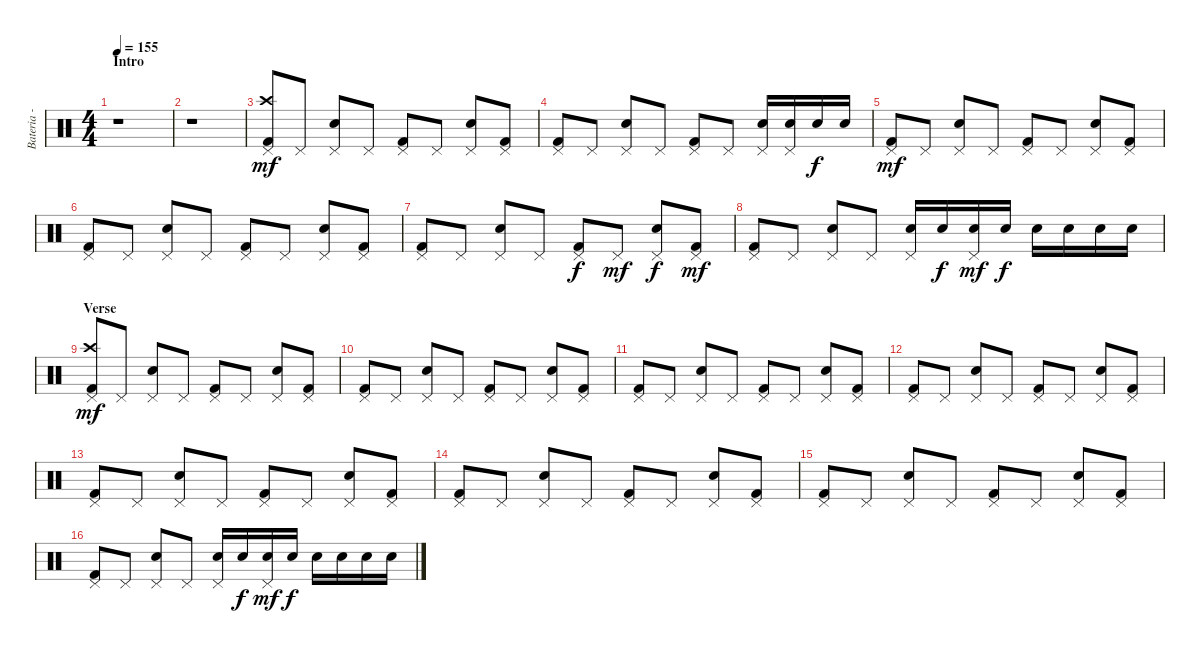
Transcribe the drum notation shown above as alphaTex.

\track ("Bateria - Larzon" "Bateria - ") {instrument percussion}
\staff {score}
\articulation defaults
\ts (4 4)
\section ("" "Intro")
\tempo 155
\clef neutral
\ks c
r.1{dy mf} |
r.1 |
("Kick (hit) 2" "Crash high (hit)" "Pedal Hi-Hat (hit)").8 "Pedal Hi-Hat (hit)".8 ("Electric Snare (hit)" "Pedal Hi-Hat (hit)").8 "Pedal Hi-Hat (hit)".8 ("Kick (hit) 2" "Pedal Hi-Hat (hit)").8 "Pedal Hi-Hat (hit)".8 ("Electric Snare (hit)" "Pedal Hi-Hat (hit)").8 ("Kick (hit) 2" "Pedal Hi-Hat (hit)").8 |
("Kick (hit) 2" "Pedal Hi-Hat (hit)").8 "Pedal Hi-Hat (hit)".8 ("Electric Snare (hit)" "Pedal Hi-Hat (hit)").8 "Pedal Hi-Hat (hit)".8 ("Kick (hit) 2" "Pedal Hi-Hat (hit)").8 "Pedal Hi-Hat (hit)".8 ("Electric Snare (hit)" "Pedal Hi-Hat (hit)").16 ("Electric Snare (hit)" "Pedal Hi-Hat (hit)").16 "Electric Snare (hit)".16{dy f} "Electric Snare (hit)".16 |
("Kick (hit) 2" "Pedal Hi-Hat (hit)").8{dy mf} "Pedal Hi-Hat (hit)".8 ("Electric Snare (hit)" "Pedal Hi-Hat (hit)").8 "Pedal Hi-Hat (hit)".8 ("Kick (hit) 2" "Pedal Hi-Hat (hit)").8 "Pedal Hi-Hat (hit)".8 ("Electric Snare (hit)" "Pedal Hi-Hat (hit)").8 ("Kick (hit) 2" "Pedal Hi-Hat (hit)").8 |
("Kick (hit) 2" "Pedal Hi-Hat (hit)").8 "Pedal Hi-Hat (hit)".8 ("Electric Snare (hit)" "Pedal Hi-Hat (hit)").8 "Pedal Hi-Hat (hit)".8 ("Kick (hit) 2" "Pedal Hi-Hat (hit)").8 "Pedal Hi-Hat (hit)".8 ("Electric Snare (hit)" "Pedal Hi-Hat (hit)").8 ("Kick (hit) 2" "Pedal Hi-Hat (hit)").8 |
("Kick (hit) 2" "Pedal Hi-Hat (hit)").8 "Pedal Hi-Hat (hit)".8 ("Electric Snare (hit)" "Pedal Hi-Hat (hit)").8 "Pedal Hi-Hat (hit)".8 ("Kick (hit) 2" "Pedal Hi-Hat (hit)").8{dy f} "Pedal Hi-Hat (hit)".8{dy mf} ("Electric Snare (hit)" "Pedal Hi-Hat (hit)").8{dy f} ("Kick (hit) 2" "Pedal Hi-Hat (hit)").8{dy mf} |
("Kick (hit) 2" "Pedal Hi-Hat (hit)").8 "Pedal Hi-Hat (hit)".8 ("Electric Snare (hit)" "Pedal Hi-Hat (hit)").8 "Pedal Hi-Hat (hit)".8 ("Snare (hit) 2" "Pedal Hi-Hat (hit)").16 "Snare (hit) 2".16{dy f} ("Snare (hit) 2" "Pedal Hi-Hat (hit)").16{dy mf} "Snare (hit) 2".16{dy f} "Electric Snare (hit)".16 "Electric Snare (hit)".16 "Electric Snare (hit)".16 "Electric Snare (hit)".16 |
\section ("" "Verse")
("Kick (hit) 2" "Pedal Hi-Hat (hit)" "Crash high (hit)").8{dy mf} "Pedal Hi-Hat (hit)".8 ("Electric Snare (hit)" "Pedal Hi-Hat (hit)").8 "Pedal Hi-Hat (hit)".8 ("Kick (hit) 2" "Pedal Hi-Hat (hit)").8 "Pedal Hi-Hat (hit)".8 ("Electric Snare (hit)" "Pedal Hi-Hat (hit)").8 ("Kick (hit) 2" "Pedal Hi-Hat (hit)").8 |
("Kick (hit) 2" "Pedal Hi-Hat (hit)").8 "Pedal Hi-Hat (hit)".8 ("Electric Snare (hit)" "Pedal Hi-Hat (hit)").8 "Pedal Hi-Hat (hit)".8 ("Kick (hit) 2" "Pedal Hi-Hat (hit)").8 "Pedal Hi-Hat (hit)".8 ("Electric Snare (hit)" "Pedal Hi-Hat (hit)").8 ("Kick (hit) 2" "Pedal Hi-Hat (hit)").8 |
("Kick (hit) 2" "Pedal Hi-Hat (hit)").8 "Pedal Hi-Hat (hit)".8 ("Electric Snare (hit)" "Pedal Hi-Hat (hit)").8 "Pedal Hi-Hat (hit)".8 ("Kick (hit) 2" "Pedal Hi-Hat (hit)").8 "Pedal Hi-Hat (hit)".8 ("Electric Snare (hit)" "Pedal Hi-Hat (hit)").8 ("Kick (hit) 2" "Pedal Hi-Hat (hit)").8 |
("Kick (hit) 2" "Pedal Hi-Hat (hit)").8 "Pedal Hi-Hat (hit)".8 ("Electric Snare (hit)" "Pedal Hi-Hat (hit)").8 "Pedal Hi-Hat (hit)".8 ("Kick (hit) 2" "Pedal Hi-Hat (hit)").8 "Pedal Hi-Hat (hit)".8 ("Electric Snare (hit)" "Pedal Hi-Hat (hit)").8 ("Kick (hit) 2" "Pedal Hi-Hat (hit)").8 |
("Kick (hit) 2" "Pedal Hi-Hat (hit)").8 "Pedal Hi-Hat (hit)".8 ("Electric Snare (hit)" "Pedal Hi-Hat (hit)").8 "Pedal Hi-Hat (hit)".8 ("Kick (hit) 2" "Pedal Hi-Hat (hit)").8 "Pedal Hi-Hat (hit)".8 ("Electric Snare (hit)" "Pedal Hi-Hat (hit)").8 ("Kick (hit) 2" "Pedal Hi-Hat (hit)").8 |
("Kick (hit) 2" "Pedal Hi-Hat (hit)").8 "Pedal Hi-Hat (hit)".8 ("Electric Snare (hit)" "Pedal Hi-Hat (hit)").8 "Pedal Hi-Hat (hit)".8 ("Kick (hit) 2" "Pedal Hi-Hat (hit)").8 "Pedal Hi-Hat (hit)".8 ("Electric Snare (hit)" "Pedal Hi-Hat (hit)").8 ("Kick (hit) 2" "Pedal Hi-Hat (hit)").8 |
("Kick (hit) 2" "Pedal Hi-Hat (hit)").8 "Pedal Hi-Hat (hit)".8 ("Electric Snare (hit)" "Pedal Hi-Hat (hit)").8 "Pedal Hi-Hat (hit)".8 ("Kick (hit) 2" "Pedal Hi-Hat (hit)").8 "Pedal Hi-Hat (hit)".8 ("Electric Snare (hit)" "Pedal Hi-Hat (hit)").8 ("Kick (hit) 2" "Pedal Hi-Hat (hit)").8 |
("Kick (hit) 2" "Pedal Hi-Hat (hit)").8 "Pedal Hi-Hat (hit)".8 ("Electric Snare (hit)" "Pedal Hi-Hat (hit)").8 "Pedal Hi-Hat (hit)".8 ("Snare (hit) 2" "Pedal Hi-Hat (hit)").16 "Snare (hit) 2".16{dy f} ("Snare (hit) 2" "Pedal Hi-Hat (hit)").16{dy mf} "Snare (hit) 2".16{dy f} "Electric Snare (hit)".16 "Electric Snare (hit)".16 "Electric Snare (hit)".16 "Electric Snare (hit)".16
